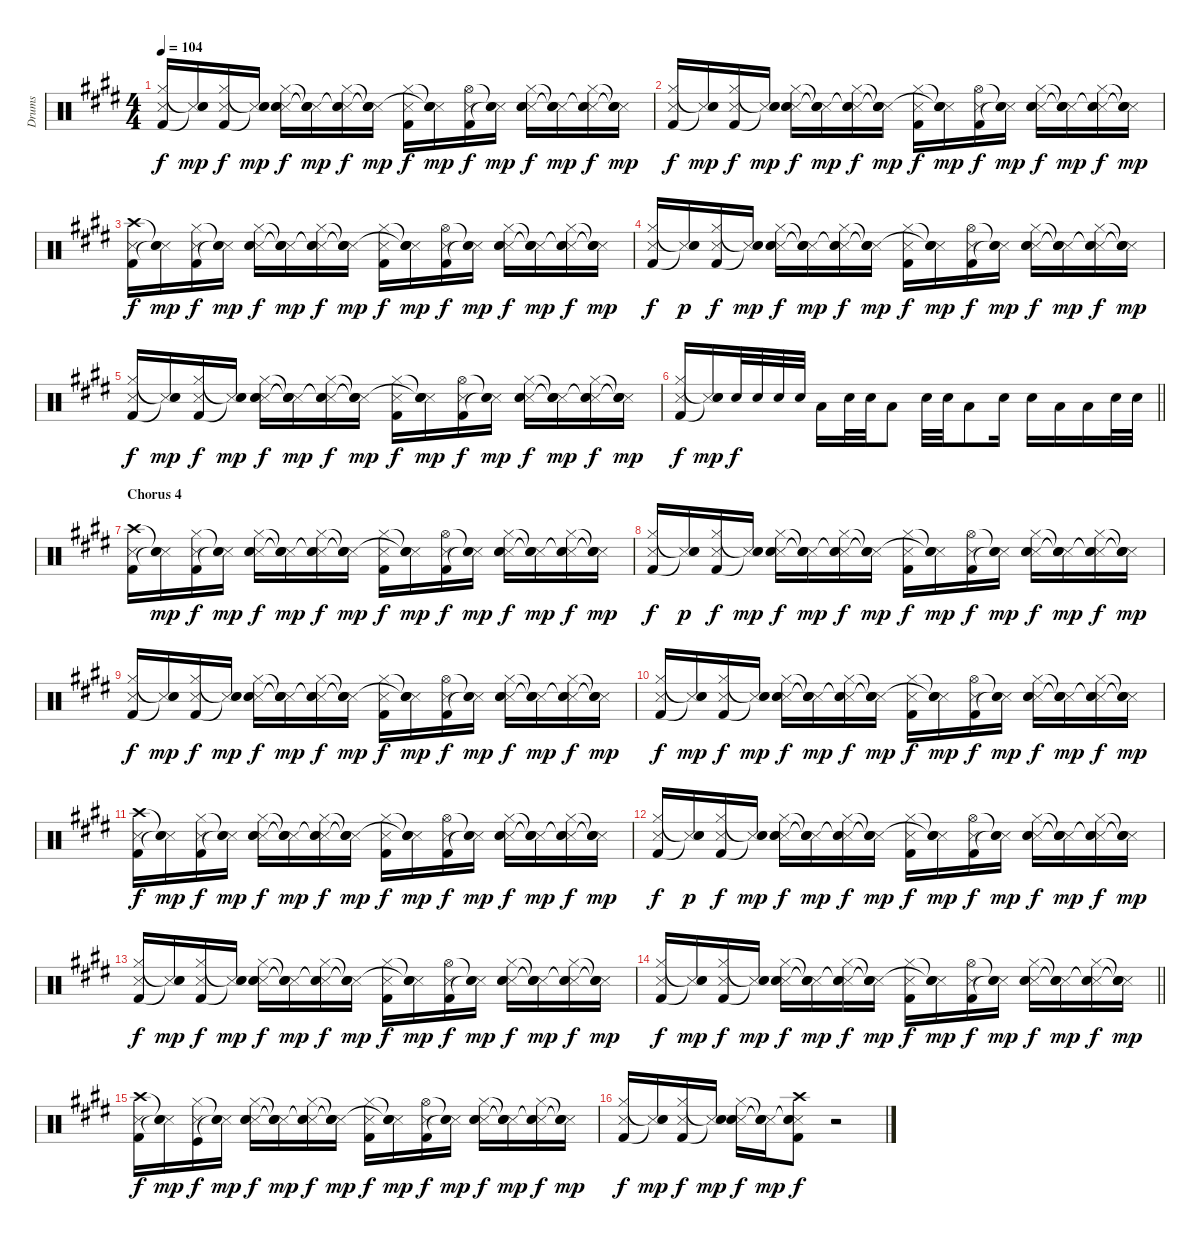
\track ("Drums" "Drums") {instrument percussion}
\staff {score}
\articulation defaults
\ts (4 4)
\tempo 104
\clef neutral
\ks e
("Metronome (hit)" "Hi-Hat (closed)" "Kick (hit) 2").16{dy f} ("Metronome (hit)" "Snare (hit)"{t} "Snare (hit)"{t}).16{dy mp} ("Metronome (hit)" "Hi-Hat (closed)" "Kick (hit) 2").16{dy f} ("Metronome (hit)" "Snare (hit)"{t} "Snare (hit)"{t}).16{dy mp} ("Metronome (hit)" "Hi-Hat (closed)" "Hand Clap (hit)" "Electric Snare (hit)").16{dy f} ("Metronome (hit)" "Snare (hit)"{t} "Snare (hit)"{t} "Snare (hit)"{t}).16{dy mp} ("Metronome (hit)" "Hi-Hat (closed)" "Snare (hit)"{t} "Snare (hit)"{t}).16{dy f} ("Metronome (hit)" "Snare (hit)"{t} "Snare (hit)"{t} "Snare (hit)"{t}).16{dy mp} ("Metronome (hit)" "Hi-Hat (closed)" "Kick (hit) 2").16{dy f} ("Metronome (hit)" "Snare (hit)"{t} "Electric Snare (hit)" "Snare (hit)"{t}).16{dy mp} ("Metronome (hit)" "Hi-Hat (open)" "Kick (hit) 2").16{dy f} ("Metronome (hit)" "Snare (hit)"{t} "Snare (hit)"{t}).16{dy mp} ("Metronome (hit)" "Hi-Hat (closed)" "Hand Clap (hit)" "Electric Snare (hit)").16{dy f} ("Metronome (hit)" "Snare (hit)"{t} "Snare (hit)"{t} "Snare (hit)"{t}).16{dy mp} ("Metronome (hit)" "Hi-Hat (closed)" "Snare (hit)"{t} "Snare (hit)"{t}).16{dy f} ("Metronome (hit)" "Snare (hit)"{t} "Snare (hit)"{t} "Snare (hit)"{t}).16{dy mp} |
("Metronome (hit)" "Hi-Hat (closed)" "Kick (hit) 2").16{dy f} ("Metronome (hit)" "Snare (hit)"{t} "Snare (hit)"{t}).16{dy mp} ("Metronome (hit)" "Hi-Hat (closed)" "Kick (hit) 2").16{dy f} ("Metronome (hit)" "Snare (hit)"{t} "Snare (hit)"{t}).16{dy mp} ("Metronome (hit)" "Hi-Hat (closed)" "Hand Clap (hit)" "Electric Snare (hit)").16{dy f} ("Metronome (hit)" "Snare (hit)"{t} "Snare (hit)"{t} "Snare (hit)"{t}).16{dy mp} ("Metronome (hit)" "Hi-Hat (closed)" "Snare (hit)"{t} "Snare (hit)"{t}).16{dy f} ("Metronome (hit)" "Snare (hit)"{t} "Snare (hit)"{t} "Snare (hit)"{t}).16{dy mp} ("Metronome (hit)" "Hi-Hat (closed)" "Kick (hit) 2").16{dy f} ("Metronome (hit)" "Snare (hit)"{t} "Electric Snare (hit)" "Snare (hit)"{t}).16{dy mp} ("Metronome (hit)" "Hi-Hat (open)" "Kick (hit) 2").16{dy f} ("Metronome (hit)" "Snare (hit)"{t} "Snare (hit)"{t}).16{dy mp} ("Metronome (hit)" "Hi-Hat (closed)" "Hand Clap (hit)" "Electric Snare (hit)").16{dy f} ("Metronome (hit)" "Snare (hit)"{t} "Snare (hit)"{t} "Snare (hit)"{t}).16{dy mp} ("Metronome (hit)" "Hi-Hat (closed)" "Snare (hit)"{t} "Snare (hit)"{t}).16{dy f} ("Metronome (hit)" "Snare (hit)"{t} "Snare (hit)"{t} "Snare (hit)"{t}).16{dy mp} |
("Metronome (hit)" "Crash high (hit)" "Kick (hit) 2").16{dy f} ("Metronome (hit)" "Snare (hit)"{t} "Snare (hit)"{t}).16{dy mp} ("Metronome (hit)" "Hi-Hat (closed)" "Kick (hit) 2").16{dy f} ("Metronome (hit)" "Snare (hit)"{t} "Snare (hit)"{t}).16{dy mp} ("Metronome (hit)" "Hi-Hat (closed)" "Hand Clap (hit)" "Electric Snare (hit)").16{dy f} ("Metronome (hit)" "Snare (hit)"{t} "Snare (hit)"{t} "Snare (hit)"{t}).16{dy mp} ("Metronome (hit)" "Hi-Hat (closed)" "Snare (hit)"{t} "Snare (hit)"{t}).16{dy f} ("Metronome (hit)" "Snare (hit)"{t} "Snare (hit)"{t} "Electric Snare (hit)"{t}).16{dy mp} ("Metronome (hit)" "Hi-Hat (closed)" "Kick (hit) 2").16{dy f} ("Metronome (hit)" "Snare (hit)"{t} "Electric Snare (hit)" "Snare (hit)"{t}).16{dy mp} ("Metronome (hit)" "Hi-Hat (open)" "Kick (hit) 2").16{dy f} ("Metronome (hit)" "Snare (hit)"{t} "Snare (hit)"{t}).16{dy mp} ("Metronome (hit)" "Hi-Hat (closed)" "Hand Clap (hit)" "Electric Snare (hit)").16{dy f} ("Metronome (hit)" "Snare (hit)"{t} "Snare (hit)"{t} "Snare (hit)"{t}).16{dy mp} ("Metronome (hit)" "Hi-Hat (closed)" "Snare (hit)"{t} "Snare (hit)"{t}).16{dy f} ("Metronome (hit)" "Snare (hit)"{t} "Snare (hit)"{t} "Snare (hit)"{t}).16{dy mp} |
("Metronome (hit)" "Hi-Hat (closed)" "Kick (hit) 2").16{dy f} ("Metronome (hit)" "Snare (hit)"{t} "Snare (hit)"{t}).16{dy p} ("Metronome (hit)" "Hi-Hat (closed)" "Kick (hit) 2").16{dy f} ("Metronome (hit)" "Snare (hit)"{t} "Snare (hit)"{t}).16{dy mp} ("Metronome (hit)" "Hi-Hat (closed)" "Hand Clap (hit)" "Electric Snare (hit)").16{dy f} ("Metronome (hit)" "Snare (hit)"{t} "Snare (hit)"{t} "Snare (hit)"{t}).16{dy mp} ("Metronome (hit)" "Hi-Hat (closed)" "Snare (hit)"{t} "Snare (hit)"{t}).16{dy f} ("Metronome (hit)" "Snare (hit)"{t} "Snare (hit)"{t} "Electric Snare (hit)"{t}).16{dy mp} ("Metronome (hit)" "Hi-Hat (closed)" "Kick (hit) 2").16{dy f} ("Metronome (hit)" "Snare (hit)"{t} "Electric Snare (hit)" "Snare (hit)"{t}).16{dy mp} ("Metronome (hit)" "Hi-Hat (open)" "Kick (hit) 2").16{dy f} ("Metronome (hit)" "Snare (hit)"{t} "Snare (hit)"{t}).16{dy mp} ("Metronome (hit)" "Hi-Hat (closed)" "Hand Clap (hit)" "Electric Snare (hit)").16{dy f} ("Metronome (hit)" "Snare (hit)"{t} "Snare (hit)"{t} "Snare (hit)"{t}).16{dy mp} ("Metronome (hit)" "Hi-Hat (closed)" "Snare (hit)"{t} "Snare (hit)"{t}).16{dy f} ("Metronome (hit)" "Snare (hit)"{t} "Snare (hit)"{t} "Snare (hit)"{t}).16{dy mp} |
("Metronome (hit)" "Hi-Hat (closed)" "Kick (hit) 2").16{dy f} ("Metronome (hit)" "Snare (hit)"{t} "Snare (hit)"{t}).16{dy mp} ("Metronome (hit)" "Hi-Hat (closed)" "Kick (hit) 2").16{dy f} ("Metronome (hit)" "Snare (hit)"{t} "Snare (hit)"{t}).16{dy mp} ("Metronome (hit)" "Hi-Hat (closed)" "Hand Clap (hit)" "Electric Snare (hit)").16{dy f} ("Metronome (hit)" "Snare (hit)"{t} "Snare (hit)"{t} "Snare (hit)"{t}).16{dy mp} ("Metronome (hit)" "Hi-Hat (closed)" "Snare (hit)"{t} "Snare (hit)"{t}).16{dy f} ("Metronome (hit)" "Snare (hit)"{t} "Snare (hit)"{t} "Snare (hit)"{t}).16{dy mp} ("Metronome (hit)" "Hi-Hat (closed)" "Kick (hit) 2").16{dy f} ("Metronome (hit)" "Snare (hit)"{t} "Electric Snare (hit)" "Snare (hit)"{t}).16{dy mp} ("Metronome (hit)" "Hi-Hat (open)" "Kick (hit) 2").16{dy f} ("Metronome (hit)" "Snare (hit)"{t} "Snare (hit)"{t}).16{dy mp} ("Metronome (hit)" "Hi-Hat (closed)" "Hand Clap (hit)" "Electric Snare (hit)").16{dy f} ("Metronome (hit)" "Snare (hit)"{t} "Snare (hit)"{t} "Snare (hit)"{t}).16{dy mp} ("Metronome (hit)" "Hi-Hat (closed)" "Snare (hit)"{t} "Snare (hit)"{t}).16{dy f} ("Metronome (hit)" "Snare (hit)"{t} "Snare (hit)"{t} "Snare (hit)"{t}).16{dy mp} |
\barLineRight lightlight
("Metronome (hit)" "Hi-Hat (closed)" "Kick (hit) 2").16{dy f} ("Metronome (hit)" "Snare (hit)"{t} "Snare (hit)"{t}).16{dy mp} "Electric Snare (hit)".32{dy f} "Electric Snare (hit)".32 "Electric Snare (hit)".32 "Electric Snare (hit)".32 "Low Tom (hit)".16 "Electric Snare (hit)".32 "Electric Snare (hit)".32 "Low Tom (hit)".8 "Electric Snare (hit)".32 "Electric Snare (hit)".32 "Low Tom (hit)".8 "Electric Snare (hit)".16 "Electric Snare (hit)".16 "Low Tom (hit)".16 "Low Floor Tom (hit)".16 "Electric Snare (hit)".32 "Electric Snare (hit)".32 |
\section ("" "Chorus 4")
("Metronome (hit)" "Crash high (hit)" "Kick (hit) 2").16 ("Metronome (hit)" "Snare (hit)"{t} "Snare (hit)"{t}).16{dy mp} ("Metronome (hit)" "Hi-Hat (closed)" "Kick (hit) 2").16{dy f} ("Metronome (hit)" "Snare (hit)"{t} "Snare (hit)"{t}).16{dy mp} ("Metronome (hit)" "Hi-Hat (closed)" "Hand Clap (hit)" "Electric Snare (hit)").16{dy f} ("Metronome (hit)" "Snare (hit)"{t} "Snare (hit)"{t} "Snare (hit)"{t}).16{dy mp} ("Metronome (hit)" "Hi-Hat (closed)" "Snare (hit)"{t} "Snare (hit)"{t}).16{dy f} ("Metronome (hit)" "Snare (hit)"{t} "Snare (hit)"{t} "Electric Snare (hit)"{t}).16{dy mp} ("Metronome (hit)" "Hi-Hat (closed)" "Kick (hit) 2").16{dy f} ("Metronome (hit)" "Snare (hit)"{t} "Electric Snare (hit)" "Snare (hit)"{t}).16{dy mp} ("Metronome (hit)" "Hi-Hat (open)" "Kick (hit) 2").16{dy f} ("Metronome (hit)" "Snare (hit)"{t} "Snare (hit)"{t}).16{dy mp} ("Metronome (hit)" "Hi-Hat (closed)" "Hand Clap (hit)" "Electric Snare (hit)").16{dy f} ("Metronome (hit)" "Snare (hit)"{t} "Snare (hit)"{t} "Snare (hit)"{t}).16{dy mp} ("Metronome (hit)" "Hi-Hat (closed)" "Snare (hit)"{t} "Snare (hit)"{t}).16{dy f} ("Metronome (hit)" "Snare (hit)"{t} "Snare (hit)"{t} "Snare (hit)"{t}).16{dy mp} |
("Metronome (hit)" "Hi-Hat (closed)" "Kick (hit) 2").16{dy f} ("Metronome (hit)" "Snare (hit)"{t} "Snare (hit)"{t}).16{dy p} ("Metronome (hit)" "Hi-Hat (closed)" "Kick (hit) 2").16{dy f} ("Metronome (hit)" "Snare (hit)"{t} "Snare (hit)"{t}).16{dy mp} ("Metronome (hit)" "Hi-Hat (closed)" "Hand Clap (hit)" "Electric Snare (hit)").16{dy f} ("Metronome (hit)" "Snare (hit)"{t} "Snare (hit)"{t} "Snare (hit)"{t}).16{dy mp} ("Metronome (hit)" "Hi-Hat (closed)" "Snare (hit)"{t} "Snare (hit)"{t}).16{dy f} ("Metronome (hit)" "Snare (hit)"{t} "Snare (hit)"{t} "Electric Snare (hit)"{t}).16{dy mp} ("Metronome (hit)" "Hi-Hat (closed)" "Kick (hit) 2").16{dy f} ("Metronome (hit)" "Snare (hit)"{t} "Electric Snare (hit)" "Snare (hit)"{t}).16{dy mp} ("Metronome (hit)" "Hi-Hat (open)" "Kick (hit) 2").16{dy f} ("Metronome (hit)" "Snare (hit)"{t} "Snare (hit)"{t}).16{dy mp} ("Metronome (hit)" "Hi-Hat (closed)" "Hand Clap (hit)" "Electric Snare (hit)").16{dy f} ("Metronome (hit)" "Snare (hit)"{t} "Snare (hit)"{t} "Snare (hit)"{t}).16{dy mp} ("Metronome (hit)" "Hi-Hat (closed)" "Snare (hit)"{t} "Snare (hit)"{t}).16{dy f} ("Metronome (hit)" "Snare (hit)"{t} "Snare (hit)"{t} "Snare (hit)"{t}).16{dy mp} |
("Metronome (hit)" "Hi-Hat (closed)" "Kick (hit) 2").16{dy f} ("Metronome (hit)" "Snare (hit)"{t} "Snare (hit)"{t}).16{dy mp} ("Metronome (hit)" "Hi-Hat (closed)" "Kick (hit) 2").16{dy f} ("Metronome (hit)" "Snare (hit)"{t} "Snare (hit)"{t}).16{dy mp} ("Metronome (hit)" "Hi-Hat (closed)" "Hand Clap (hit)" "Electric Snare (hit)").16{dy f} ("Metronome (hit)" "Snare (hit)"{t} "Snare (hit)"{t} "Snare (hit)"{t}).16{dy mp} ("Metronome (hit)" "Hi-Hat (closed)" "Snare (hit)"{t} "Snare (hit)"{t}).16{dy f} ("Metronome (hit)" "Snare (hit)"{t} "Snare (hit)"{t} "Snare (hit)"{t}).16{dy mp} ("Metronome (hit)" "Hi-Hat (closed)" "Kick (hit) 2").16{dy f} ("Metronome (hit)" "Snare (hit)"{t} "Electric Snare (hit)" "Snare (hit)"{t}).16{dy mp} ("Metronome (hit)" "Hi-Hat (open)" "Kick (hit) 2").16{dy f} ("Metronome (hit)" "Snare (hit)"{t} "Snare (hit)"{t}).16{dy mp} ("Metronome (hit)" "Hi-Hat (closed)" "Hand Clap (hit)" "Electric Snare (hit)").16{dy f} ("Metronome (hit)" "Snare (hit)"{t} "Snare (hit)"{t} "Snare (hit)"{t}).16{dy mp} ("Metronome (hit)" "Hi-Hat (closed)" "Snare (hit)"{t} "Snare (hit)"{t}).16{dy f} ("Metronome (hit)" "Snare (hit)"{t} "Snare (hit)"{t} "Snare (hit)"{t}).16{dy mp} |
("Metronome (hit)" "Hi-Hat (closed)" "Kick (hit) 2").16{dy f} ("Metronome (hit)" "Snare (hit)"{t} "Snare (hit)"{t}).16{dy mp} ("Metronome (hit)" "Hi-Hat (closed)" "Kick (hit) 2").16{dy f} ("Metronome (hit)" "Snare (hit)"{t} "Snare (hit)"{t}).16{dy mp} ("Metronome (hit)" "Hi-Hat (closed)" "Hand Clap (hit)" "Electric Snare (hit)").16{dy f} ("Metronome (hit)" "Snare (hit)"{t} "Snare (hit)"{t} "Snare (hit)"{t}).16{dy mp} ("Metronome (hit)" "Hi-Hat (closed)" "Snare (hit)"{t} "Snare (hit)"{t}).16{dy f} ("Metronome (hit)" "Snare (hit)"{t} "Snare (hit)"{t} "Snare (hit)"{t}).16{dy mp} ("Metronome (hit)" "Hi-Hat (closed)" "Kick (hit) 2").16{dy f} ("Metronome (hit)" "Snare (hit)"{t} "Electric Snare (hit)" "Snare (hit)"{t}).16{dy mp} ("Metronome (hit)" "Hi-Hat (open)" "Kick (hit) 2").16{dy f} ("Metronome (hit)" "Snare (hit)"{t} "Snare (hit)"{t}).16{dy mp} ("Metronome (hit)" "Hi-Hat (closed)" "Hand Clap (hit)" "Electric Snare (hit)").16{dy f} ("Metronome (hit)" "Snare (hit)"{t} "Snare (hit)"{t} "Snare (hit)"{t}).16{dy mp} ("Metronome (hit)" "Hi-Hat (closed)" "Snare (hit)"{t} "Snare (hit)"{t}).16{dy f} ("Metronome (hit)" "Snare (hit)"{t} "Snare (hit)"{t} "Snare (hit)"{t}).16{dy mp} |
("Metronome (hit)" "Crash high (hit)" "Kick (hit) 2").16{dy f} ("Metronome (hit)" "Snare (hit)"{t} "Snare (hit)"{t}).16{dy mp} ("Metronome (hit)" "Hi-Hat (closed)" "Kick (hit) 2").16{dy f} ("Metronome (hit)" "Snare (hit)"{t} "Snare (hit)"{t}).16{dy mp} ("Metronome (hit)" "Hi-Hat (closed)" "Hand Clap (hit)" "Electric Snare (hit)").16{dy f} ("Metronome (hit)" "Snare (hit)"{t} "Snare (hit)"{t} "Snare (hit)"{t}).16{dy mp} ("Metronome (hit)" "Hi-Hat (closed)" "Snare (hit)"{t} "Snare (hit)"{t}).16{dy f} ("Metronome (hit)" "Snare (hit)"{t} "Snare (hit)"{t} "Electric Snare (hit)"{t}).16{dy mp} ("Metronome (hit)" "Hi-Hat (closed)" "Kick (hit) 2").16{dy f} ("Metronome (hit)" "Snare (hit)"{t} "Electric Snare (hit)" "Snare (hit)"{t}).16{dy mp} ("Metronome (hit)" "Hi-Hat (open)" "Kick (hit) 2").16{dy f} ("Metronome (hit)" "Snare (hit)"{t} "Snare (hit)"{t}).16{dy mp} ("Metronome (hit)" "Hi-Hat (closed)" "Hand Clap (hit)" "Electric Snare (hit)").16{dy f} ("Metronome (hit)" "Snare (hit)"{t} "Snare (hit)"{t} "Snare (hit)"{t}).16{dy mp} ("Metronome (hit)" "Hi-Hat (closed)" "Snare (hit)"{t} "Snare (hit)"{t}).16{dy f} ("Metronome (hit)" "Snare (hit)"{t} "Snare (hit)"{t} "Snare (hit)"{t}).16{dy mp} |
("Metronome (hit)" "Hi-Hat (closed)" "Kick (hit) 2").16{dy f} ("Metronome (hit)" "Snare (hit)"{t} "Snare (hit)"{t}).16{dy p} ("Metronome (hit)" "Hi-Hat (closed)" "Kick (hit) 2").16{dy f} ("Metronome (hit)" "Snare (hit)"{t} "Snare (hit)"{t}).16{dy mp} ("Metronome (hit)" "Hi-Hat (closed)" "Hand Clap (hit)" "Electric Snare (hit)").16{dy f} ("Metronome (hit)" "Snare (hit)"{t} "Snare (hit)"{t} "Snare (hit)"{t}).16{dy mp} ("Metronome (hit)" "Hi-Hat (closed)" "Snare (hit)"{t} "Snare (hit)"{t}).16{dy f} ("Metronome (hit)" "Snare (hit)"{t} "Snare (hit)"{t} "Electric Snare (hit)"{t}).16{dy mp} ("Metronome (hit)" "Hi-Hat (closed)" "Kick (hit) 2").16{dy f} ("Metronome (hit)" "Snare (hit)"{t} "Electric Snare (hit)" "Snare (hit)"{t}).16{dy mp} ("Metronome (hit)" "Hi-Hat (open)" "Kick (hit) 2").16{dy f} ("Metronome (hit)" "Snare (hit)"{t} "Snare (hit)"{t}).16{dy mp} ("Metronome (hit)" "Hi-Hat (closed)" "Hand Clap (hit)" "Electric Snare (hit)").16{dy f} ("Metronome (hit)" "Snare (hit)"{t} "Snare (hit)"{t} "Snare (hit)"{t}).16{dy mp} ("Metronome (hit)" "Hi-Hat (closed)" "Snare (hit)"{t} "Snare (hit)"{t}).16{dy f} ("Metronome (hit)" "Snare (hit)"{t} "Snare (hit)"{t} "Snare (hit)"{t}).16{dy mp} |
("Metronome (hit)" "Hi-Hat (closed)" "Kick (hit) 2").16{dy f} ("Metronome (hit)" "Snare (hit)"{t} "Snare (hit)"{t}).16{dy mp} ("Metronome (hit)" "Hi-Hat (closed)" "Kick (hit) 2").16{dy f} ("Metronome (hit)" "Snare (hit)"{t} "Snare (hit)"{t}).16{dy mp} ("Metronome (hit)" "Hi-Hat (closed)" "Hand Clap (hit)" "Electric Snare (hit)").16{dy f} ("Metronome (hit)" "Snare (hit)"{t} "Snare (hit)"{t} "Snare (hit)"{t}).16{dy mp} ("Metronome (hit)" "Hi-Hat (closed)" "Snare (hit)"{t} "Snare (hit)"{t}).16{dy f} ("Metronome (hit)" "Snare (hit)"{t} "Snare (hit)"{t} "Snare (hit)"{t}).16{dy mp} ("Metronome (hit)" "Hi-Hat (closed)" "Kick (hit) 2").16{dy f} ("Metronome (hit)" "Snare (hit)"{t} "Electric Snare (hit)" "Snare (hit)"{t}).16{dy mp} ("Metronome (hit)" "Hi-Hat (open)" "Kick (hit) 2").16{dy f} ("Metronome (hit)" "Snare (hit)"{t} "Snare (hit)"{t}).16{dy mp} ("Metronome (hit)" "Hi-Hat (closed)" "Hand Clap (hit)" "Electric Snare (hit)").16{dy f} ("Metronome (hit)" "Snare (hit)"{t} "Snare (hit)"{t} "Snare (hit)"{t}).16{dy mp} ("Metronome (hit)" "Hi-Hat (closed)" "Snare (hit)"{t} "Snare (hit)"{t}).16{dy f} ("Metronome (hit)" "Snare (hit)"{t} "Snare (hit)"{t} "Snare (hit)"{t}).16{dy mp} |
\barLineRight lightlight
("Metronome (hit)" "Hi-Hat (closed)" "Kick (hit) 2").16{dy f} ("Metronome (hit)" "Snare (hit)"{t} "Snare (hit)"{t}).16{dy mp} ("Metronome (hit)" "Hi-Hat (closed)" "Kick (hit) 2").16{dy f} ("Metronome (hit)" "Snare (hit)"{t} "Snare (hit)"{t}).16{dy mp} ("Metronome (hit)" "Hi-Hat (closed)" "Hand Clap (hit)" "Electric Snare (hit)").16{dy f} ("Metronome (hit)" "Snare (hit)"{t} "Snare (hit)"{t} "Snare (hit)"{t}).16{dy mp} ("Metronome (hit)" "Hi-Hat (closed)" "Snare (hit)"{t} "Snare (hit)"{t}).16{dy f} ("Metronome (hit)" "Snare (hit)"{t} "Snare (hit)"{t} "Snare (hit)"{t}).16{dy mp} ("Metronome (hit)" "Hi-Hat (closed)" "Kick (hit) 2").16{dy f} ("Metronome (hit)" "Snare (hit)"{t} "Electric Snare (hit)" "Snare (hit)"{t}).16{dy mp} ("Metronome (hit)" "Hi-Hat (open)" "Kick (hit) 2").16{dy f} ("Metronome (hit)" "Snare (hit)"{t} "Snare (hit)"{t}).16{dy mp} ("Metronome (hit)" "Hi-Hat (closed)" "Hand Clap (hit)" "Electric Snare (hit)").16{dy f} ("Metronome (hit)" "Snare (hit)"{t} "Snare (hit)"{t} "Snare (hit)"{t}).16{dy mp} ("Metronome (hit)" "Hi-Hat (closed)" "Snare (hit)"{t} "Snare (hit)"{t}).16{dy f} ("Metronome (hit)" "Snare (hit)"{t} "Snare (hit)"{t} "Snare (hit)"{t}).16{dy mp} |
("Metronome (hit)" "Crash high (hit)" "Kick (hit) 2").16{dy f} ("Metronome (hit)" "Snare (hit)"{t} "Snare (hit)"{t}).16{dy mp} ("Metronome (hit)" "Hi-Hat (closed)" "Kick (hit)").16{dy f} ("Metronome (hit)" "Snare (hit)"{t} "Snare (hit)"{t}).16{dy mp} ("Metronome (hit)" "Hi-Hat (closed)" "Hand Clap (hit)" "Electric Snare (hit)").16{dy f} ("Metronome (hit)" "Snare (hit)"{t} "Snare (hit)"{t} "Snare (hit)"{t}).16{dy mp} ("Metronome (hit)" "Hi-Hat (closed)" "Snare (hit)"{t} "Snare (hit)"{t}).16{dy f} ("Metronome (hit)" "Snare (hit)"{t} "Snare (hit)"{t} "Snare (hit)"{t}).16{dy mp} ("Metronome (hit)" "Hi-Hat (closed)" "Kick (hit) 2").16{dy f} ("Metronome (hit)" "Snare (hit)"{t} "Electric Snare (hit)" "Snare (hit)"{t}).16{dy mp} ("Metronome (hit)" "Hi-Hat (open)" "Kick (hit) 2").16{dy f} ("Metronome (hit)" "Snare (hit)"{t} "Snare (hit)"{t}).16{dy mp} ("Metronome (hit)" "Hi-Hat (closed)" "Hand Clap (hit)" "Electric Snare (hit)").16{dy f} ("Metronome (hit)" "Snare (hit)"{t} "Snare (hit)"{t} "Snare (hit)"{t}).16{dy mp} ("Metronome (hit)" "Hi-Hat (closed)" "Snare (hit)"{t} "Snare (hit)"{t}).16{dy f} ("Metronome (hit)" "Snare (hit)"{t} "Snare (hit)"{t} "Snare (hit)"{t}).16{dy mp} |
("Metronome (hit)" "Hi-Hat (closed)" "Kick (hit) 2").16{dy f} ("Metronome (hit)" "Snare (hit)"{t} "Snare (hit)"{t}).16{dy mp} ("Metronome (hit)" "Hi-Hat (closed)" "Kick (hit) 2").16{dy f} ("Metronome (hit)" "Snare (hit)"{t} "Snare (hit)"{t}).16{dy mp} ("Metronome (hit)" "Hi-Hat (closed)" "Hand Clap (hit)" "Electric Snare (hit)").16{dy f} ("Metronome (hit)" "Snare (hit)"{t} "Snare (hit)"{t} "Snare (hit)"{t}).16{dy mp} ("Metronome (hit)" "Crash high (hit)" "Snare (hit)"{t} "Snare (hit)"{t} "Kick (hit) 2").8{dy f} r.2
